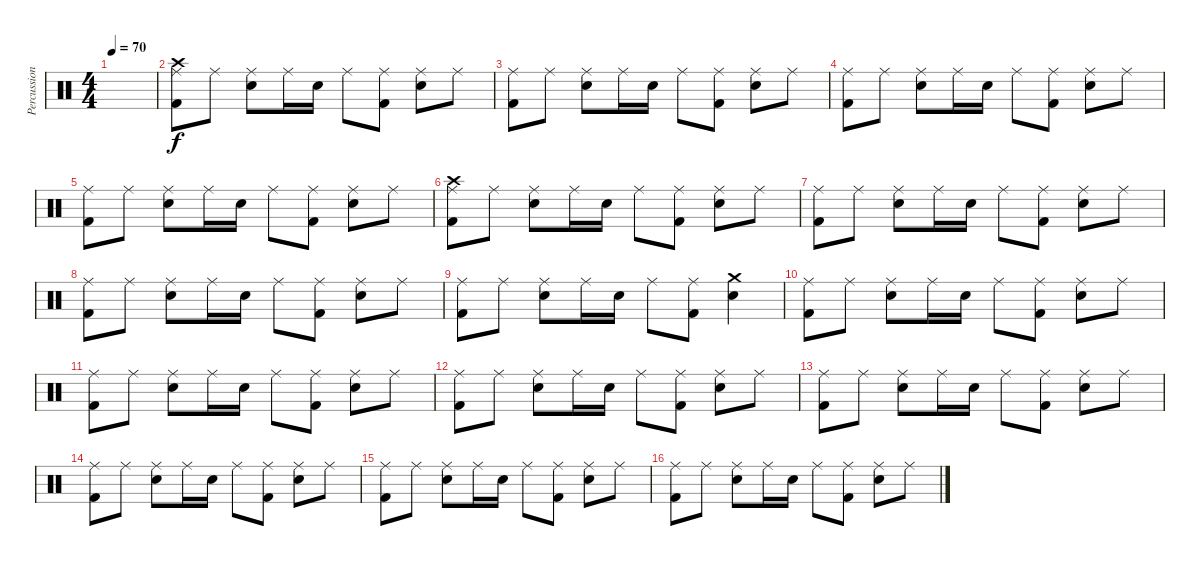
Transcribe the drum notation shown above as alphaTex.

\track ("Percussion" "Percussion") {instrument percussion}
\staff {score}
\articulation defaults
\ts (4 4)
\tempo 70
\clef neutral
\ks c
|
("Crash high (hit)" "Ride (middle)" "Kick (hit) 2").8 "Ride (middle)".8 ("Ride (middle)" "Electric Snare (hit)").8 "Ride (middle)".16 "Electric Snare (hit)".16 "Ride (middle)".8 ("Ride (middle)" "Kick (hit) 2").8 ("Ride (middle)" "Electric Snare (hit)").8 "Ride (middle)".8 |
("Ride (middle)" "Kick (hit) 2").8 "Ride (middle)".8 ("Ride (middle)" "Electric Snare (hit)").8 "Ride (middle)".16 "Electric Snare (hit)".16 "Ride (middle)".8 ("Ride (middle)" "Kick (hit) 2").8 ("Ride (middle)" "Electric Snare (hit)").8 "Ride (middle)".8 |
("Ride (middle)" "Kick (hit) 2").8 "Ride (middle)".8 ("Ride (middle)" "Electric Snare (hit)").8 "Ride (middle)".16 "Electric Snare (hit)".16 "Ride (middle)".8 ("Ride (middle)" "Kick (hit) 2").8 ("Ride (middle)" "Electric Snare (hit)").8 "Ride (middle)".8 |
("Ride (middle)" "Kick (hit) 2").8 "Ride (middle)".8 ("Ride (middle)" "Electric Snare (hit)").8 "Ride (middle)".16 "Electric Snare (hit)".16 "Ride (middle)".8 ("Ride (middle)" "Kick (hit) 2").8 ("Ride (middle)" "Electric Snare (hit)").8 "Ride (middle)".8 |
("Crash high (hit)" "Ride (middle)" "Kick (hit) 2").8 "Ride (middle)".8 ("Ride (middle)" "Electric Snare (hit)").8 "Ride (middle)".16 "Electric Snare (hit)".16 "Ride (middle)".8 ("Ride (middle)" "Kick (hit) 2").8 ("Ride (middle)" "Electric Snare (hit)").8 "Ride (middle)".8 |
("Ride (middle)" "Kick (hit) 2").8 "Ride (middle)".8 ("Ride (middle)" "Electric Snare (hit)").8 "Ride (middle)".16 "Electric Snare (hit)".16 "Ride (middle)".8 ("Ride (middle)" "Kick (hit) 2").8 ("Ride (middle)" "Electric Snare (hit)").8 "Ride (middle)".8 |
("Ride (middle)" "Kick (hit) 2").8 "Ride (middle)".8 ("Ride (middle)" "Electric Snare (hit)").8 "Ride (middle)".16 "Electric Snare (hit)".16 "Ride (middle)".8 ("Ride (middle)" "Kick (hit) 2").8 ("Ride (middle)" "Electric Snare (hit)").8 "Ride (middle)".8 |
("Ride (middle)" "Kick (hit) 2").8 "Ride (middle)".8 ("Ride (middle)" "Electric Snare (hit)").8 "Ride (middle)".16 "Electric Snare (hit)".16 "Ride (middle)".8 ("Ride (middle)" "Kick (hit) 2").8 ("Crash medium (hit)" "Electric Snare (hit)").4 |
("Ride (middle)" "Kick (hit) 2").8 "Ride (middle)".8 ("Ride (middle)" "Electric Snare (hit)").8 "Ride (middle)".16 "Electric Snare (hit)".16 "Ride (middle)".8 ("Ride (middle)" "Kick (hit) 2").8 ("Ride (middle)" "Electric Snare (hit)").8 "Ride (middle)".8 |
("Ride (middle)" "Kick (hit) 2").8 "Ride (middle)".8 ("Ride (middle)" "Electric Snare (hit)").8 "Ride (middle)".16 "Electric Snare (hit)".16 "Ride (middle)".8 ("Ride (middle)" "Kick (hit) 2").8 ("Ride (middle)" "Electric Snare (hit)").8 "Ride (middle)".8 |
("Ride (middle)" "Kick (hit) 2").8 "Ride (middle)".8 ("Ride (middle)" "Electric Snare (hit)").8 "Ride (middle)".16 "Electric Snare (hit)".16 "Ride (middle)".8 ("Ride (middle)" "Kick (hit) 2").8 ("Ride (middle)" "Electric Snare (hit)").8 "Ride (middle)".8 |
("Ride (middle)" "Kick (hit) 2").8 "Ride (middle)".8 ("Ride (middle)" "Electric Snare (hit)").8 "Ride (middle)".16 "Electric Snare (hit)".16 "Ride (middle)".8 ("Ride (middle)" "Kick (hit) 2").8 ("Ride (middle)" "Electric Snare (hit)").8 "Ride (middle)".8 |
("Ride (middle)" "Kick (hit) 2").8 "Ride (middle)".8 ("Ride (middle)" "Electric Snare (hit)").8 "Ride (middle)".16 "Electric Snare (hit)".16 "Ride (middle)".8 ("Ride (middle)" "Kick (hit) 2").8 ("Ride (middle)" "Electric Snare (hit)").8 "Ride (middle)".8 |
("Ride (middle)" "Kick (hit) 2").8 "Ride (middle)".8 ("Ride (middle)" "Electric Snare (hit)").8 "Ride (middle)".16 "Electric Snare (hit)".16 "Ride (middle)".8 ("Ride (middle)" "Kick (hit) 2").8 ("Ride (middle)" "Electric Snare (hit)").8 "Ride (middle)".8 |
("Ride (middle)" "Kick (hit) 2").8 "Ride (middle)".8 ("Ride (middle)" "Electric Snare (hit)").8 "Ride (middle)".16 "Electric Snare (hit)".16 "Ride (middle)".8 ("Ride (middle)" "Kick (hit) 2").8 ("Ride (middle)" "Electric Snare (hit)").8 "Ride (middle)".8
